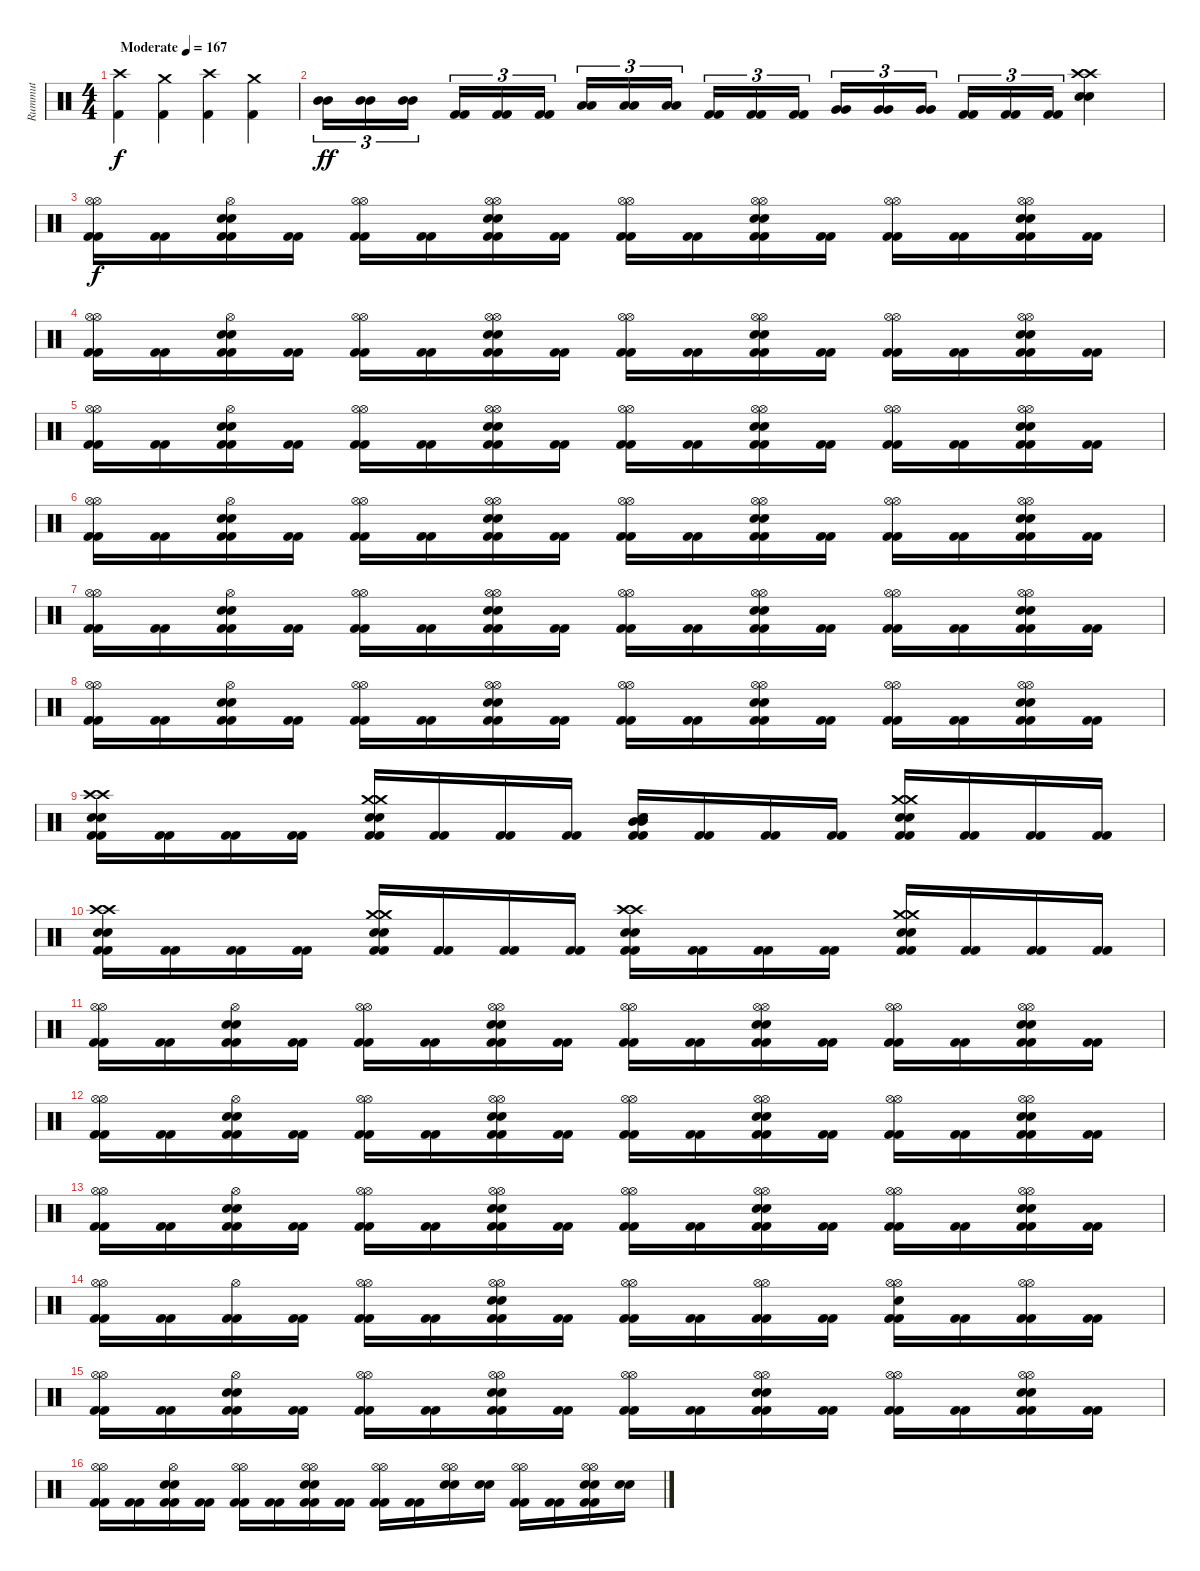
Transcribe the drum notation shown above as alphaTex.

\track ("Rummut" "Rummut") {instrument percussion}
\staff {score}
\articulation defaults
\ts (4 4)
\tempo (167 "Moderate")
\clef neutral
\ks c
("Crash high (hit)" "Kick (hit) 2").4{dy f} ("Crash medium (hit)" "Kick (hit) 2").4 ("Crash high (hit)" "Kick (hit) 2").4 ("Crash medium (hit)" "Kick (hit) 2").4 |
("Mid Tom (hit)" "Mid Tom (hit)").16{tu (3 2) dy ff} ("Mid Tom (hit)" "Mid Tom (hit)").16{tu (3 2)} ("Mid Tom (hit)" "Mid Tom (hit)").16{tu (3 2) beam splitsecondary} ("Kick (hit) 2" "Kick (hit) 2").16{tu (3 2)} ("Kick (hit) 2" "Kick (hit) 2").16{tu (3 2)} ("Kick (hit) 2" "Kick (hit) 2").16{tu (3 2)} ("Low Tom (hit)" "Low Tom (hit)").16{tu (3 2)} ("Low Tom (hit)" "Low Tom (hit)").16{tu (3 2)} ("Low Tom (hit)" "Low Tom (hit)").16{tu (3 2) beam splitsecondary} ("Kick (hit) 2" "Kick (hit) 2").16{tu (3 2)} ("Kick (hit) 2" "Kick (hit) 2").16{tu (3 2)} ("Kick (hit) 2" "Kick (hit) 2").16{tu (3 2)} ("Very Low Tom (hit)" "Very Low Tom (hit)").16{tu (3 2)} ("Very Low Tom (hit)" "Very Low Tom (hit)").16{tu (3 2)} ("Very Low Tom (hit)" "Very Low Tom (hit)").16{tu (3 2) beam splitsecondary} ("Kick (hit) 2" "Kick (hit) 2").16{tu (3 2)} ("Kick (hit) 2" "Kick (hit) 2").16{tu (3 2)} ("Kick (hit) 2" "Kick (hit) 2").16{tu (3 2)} ("Crash high (hit)" "Crash high (hit)" "Snare (hit) 2" "Snare (hit) 2").4 |
("Kick (hit) 2" "Kick (hit) 2" "Hi-Hat (open)" "Hi-Hat (open)").16{dy f} ("Kick (hit) 2" "Kick (hit) 2").16 ("Kick (hit) 2" "Kick (hit) 2" "Snare (hit) 2" "Snare (hit) 2" "Hi-Hat (open)").16 ("Kick (hit) 2" "Kick (hit) 2").16 ("Kick (hit) 2" "Kick (hit) 2" "Hi-Hat (open)" "Hi-Hat (open)").16 ("Kick (hit) 2" "Kick (hit) 2").16 ("Kick (hit) 2" "Kick (hit) 2" "Snare (hit) 2" "Snare (hit) 2" "Hi-Hat (open)" "Hi-Hat (open)").16 ("Kick (hit) 2" "Kick (hit) 2").16 ("Kick (hit) 2" "Kick (hit) 2" "Hi-Hat (open)" "Hi-Hat (open)").16 ("Kick (hit) 2" "Kick (hit) 2").16 ("Kick (hit) 2" "Kick (hit) 2" "Snare (hit) 2" "Snare (hit) 2" "Hi-Hat (open)" "Hi-Hat (open)").16 ("Kick (hit) 2" "Kick (hit) 2").16 ("Kick (hit) 2" "Kick (hit) 2" "Hi-Hat (open)" "Hi-Hat (open)").16 ("Kick (hit) 2" "Kick (hit) 2").16 ("Kick (hit) 2" "Kick (hit) 2" "Snare (hit) 2" "Snare (hit) 2" "Hi-Hat (open)" "Hi-Hat (open)").16 ("Kick (hit) 2" "Kick (hit) 2").16 |
("Kick (hit) 2" "Kick (hit) 2" "Hi-Hat (open)" "Hi-Hat (open)").16 ("Kick (hit) 2" "Kick (hit) 2").16 ("Kick (hit) 2" "Kick (hit) 2" "Snare (hit) 2" "Snare (hit) 2" "Hi-Hat (open)").16 ("Kick (hit) 2" "Kick (hit) 2").16 ("Kick (hit) 2" "Kick (hit) 2" "Hi-Hat (open)" "Hi-Hat (open)").16 ("Kick (hit) 2" "Kick (hit) 2").16 ("Kick (hit) 2" "Kick (hit) 2" "Snare (hit) 2" "Snare (hit) 2" "Hi-Hat (open)" "Hi-Hat (open)").16 ("Kick (hit) 2" "Kick (hit) 2").16 ("Kick (hit) 2" "Kick (hit) 2" "Hi-Hat (open)" "Hi-Hat (open)").16 ("Kick (hit) 2" "Kick (hit) 2").16 ("Kick (hit) 2" "Kick (hit) 2" "Snare (hit) 2" "Snare (hit) 2" "Hi-Hat (open)" "Hi-Hat (open)").16 ("Kick (hit) 2" "Kick (hit) 2").16 ("Kick (hit) 2" "Kick (hit) 2" "Hi-Hat (open)" "Hi-Hat (open)").16 ("Kick (hit) 2" "Kick (hit) 2").16 ("Kick (hit) 2" "Kick (hit) 2" "Snare (hit) 2" "Snare (hit) 2" "Hi-Hat (open)" "Hi-Hat (open)").16 ("Kick (hit) 2" "Kick (hit) 2").16 |
("Kick (hit) 2" "Kick (hit) 2" "Hi-Hat (open)" "Hi-Hat (open)").16 ("Kick (hit) 2" "Kick (hit) 2").16 ("Kick (hit) 2" "Kick (hit) 2" "Snare (hit) 2" "Snare (hit) 2" "Hi-Hat (open)").16 ("Kick (hit) 2" "Kick (hit) 2").16 ("Kick (hit) 2" "Kick (hit) 2" "Hi-Hat (open)" "Hi-Hat (open)").16 ("Kick (hit) 2" "Kick (hit) 2").16 ("Kick (hit) 2" "Kick (hit) 2" "Snare (hit) 2" "Snare (hit) 2" "Hi-Hat (open)" "Hi-Hat (open)").16 ("Kick (hit) 2" "Kick (hit) 2").16 ("Kick (hit) 2" "Kick (hit) 2" "Hi-Hat (open)" "Hi-Hat (open)").16 ("Kick (hit) 2" "Kick (hit) 2").16 ("Kick (hit) 2" "Kick (hit) 2" "Snare (hit) 2" "Snare (hit) 2" "Hi-Hat (open)" "Hi-Hat (open)").16 ("Kick (hit) 2" "Kick (hit) 2").16 ("Kick (hit) 2" "Kick (hit) 2" "Hi-Hat (open)" "Hi-Hat (open)").16 ("Kick (hit) 2" "Kick (hit) 2").16 ("Kick (hit) 2" "Kick (hit) 2" "Snare (hit) 2" "Snare (hit) 2" "Hi-Hat (open)" "Hi-Hat (open)").16 ("Kick (hit) 2" "Kick (hit) 2").16 |
("Kick (hit) 2" "Kick (hit) 2" "Hi-Hat (open)" "Hi-Hat (open)").16 ("Kick (hit) 2" "Kick (hit) 2").16 ("Kick (hit) 2" "Kick (hit) 2" "Snare (hit) 2" "Snare (hit) 2" "Hi-Hat (open)").16 ("Kick (hit) 2" "Kick (hit) 2").16 ("Kick (hit) 2" "Kick (hit) 2" "Hi-Hat (open)" "Hi-Hat (open)").16 ("Kick (hit) 2" "Kick (hit) 2").16 ("Kick (hit) 2" "Kick (hit) 2" "Snare (hit) 2" "Snare (hit) 2" "Hi-Hat (open)" "Hi-Hat (open)").16 ("Kick (hit) 2" "Kick (hit) 2").16 ("Kick (hit) 2" "Kick (hit) 2" "Hi-Hat (open)" "Hi-Hat (open)").16 ("Kick (hit) 2" "Kick (hit) 2").16 ("Kick (hit) 2" "Kick (hit) 2" "Snare (hit) 2" "Snare (hit) 2" "Hi-Hat (open)" "Hi-Hat (open)").16 ("Kick (hit) 2" "Kick (hit) 2").16 ("Kick (hit) 2" "Kick (hit) 2" "Hi-Hat (open)" "Hi-Hat (open)").16 ("Kick (hit) 2" "Kick (hit) 2").16 ("Kick (hit) 2" "Kick (hit) 2" "Snare (hit) 2" "Snare (hit) 2" "Hi-Hat (open)" "Hi-Hat (open)").16 ("Kick (hit) 2" "Kick (hit) 2").16 |
("Kick (hit) 2" "Kick (hit) 2" "Hi-Hat (open)" "Hi-Hat (open)").16 ("Kick (hit) 2" "Kick (hit) 2").16 ("Kick (hit) 2" "Kick (hit) 2" "Snare (hit) 2" "Snare (hit) 2" "Hi-Hat (open)").16 ("Kick (hit) 2" "Kick (hit) 2").16 ("Kick (hit) 2" "Kick (hit) 2" "Hi-Hat (open)" "Hi-Hat (open)").16 ("Kick (hit) 2" "Kick (hit) 2").16 ("Kick (hit) 2" "Kick (hit) 2" "Snare (hit) 2" "Snare (hit) 2" "Hi-Hat (open)" "Hi-Hat (open)").16 ("Kick (hit) 2" "Kick (hit) 2").16 ("Kick (hit) 2" "Kick (hit) 2" "Hi-Hat (open)" "Hi-Hat (open)").16 ("Kick (hit) 2" "Kick (hit) 2").16 ("Kick (hit) 2" "Kick (hit) 2" "Snare (hit) 2" "Snare (hit) 2" "Hi-Hat (open)" "Hi-Hat (open)").16 ("Kick (hit) 2" "Kick (hit) 2").16 ("Kick (hit) 2" "Kick (hit) 2" "Hi-Hat (open)" "Hi-Hat (open)").16 ("Kick (hit) 2" "Kick (hit) 2").16 ("Kick (hit) 2" "Kick (hit) 2" "Snare (hit) 2" "Snare (hit) 2" "Hi-Hat (open)" "Hi-Hat (open)").16 ("Kick (hit) 2" "Kick (hit) 2").16 |
("Kick (hit) 2" "Kick (hit) 2" "Hi-Hat (open)" "Hi-Hat (open)").16 ("Kick (hit) 2" "Kick (hit) 2").16 ("Kick (hit) 2" "Kick (hit) 2" "Snare (hit) 2" "Snare (hit) 2" "Hi-Hat (open)").16 ("Kick (hit) 2" "Kick (hit) 2").16 ("Kick (hit) 2" "Kick (hit) 2" "Hi-Hat (open)" "Hi-Hat (open)").16 ("Kick (hit) 2" "Kick (hit) 2").16 ("Kick (hit) 2" "Kick (hit) 2" "Snare (hit) 2" "Snare (hit) 2" "Hi-Hat (open)" "Hi-Hat (open)").16 ("Kick (hit) 2" "Kick (hit) 2").16 ("Kick (hit) 2" "Kick (hit) 2" "Hi-Hat (open)" "Hi-Hat (open)").16 ("Kick (hit) 2" "Kick (hit) 2").16 ("Kick (hit) 2" "Kick (hit) 2" "Snare (hit) 2" "Snare (hit) 2" "Hi-Hat (open)" "Hi-Hat (open)").16 ("Kick (hit) 2" "Kick (hit) 2").16 ("Kick (hit) 2" "Kick (hit) 2" "Hi-Hat (open)" "Hi-Hat (open)").16 ("Kick (hit) 2" "Kick (hit) 2").16 ("Kick (hit) 2" "Kick (hit) 2" "Snare (hit) 2" "Snare (hit) 2" "Hi-Hat (open)" "Hi-Hat (open)").16 ("Kick (hit) 2" "Kick (hit) 2").16 |
("Snare (hit) 2" "Snare (hit) 2" "Kick (hit) 2" "Kick (hit) 2" "Crash high (hit)" "Crash high (hit)").16 ("Kick (hit) 2" "Kick (hit) 2").16 ("Kick (hit) 2" "Kick (hit) 2").16 ("Kick (hit) 2" "Kick (hit) 2").16 ("Snare (hit) 2" "Snare (hit) 2" "Kick (hit) 2" "Kick (hit) 2" "Crash medium (hit)" "Crash medium (hit)").16 ("Kick (hit) 2" "Kick (hit) 2").16 ("Kick (hit) 2" "Kick (hit) 2").16 ("Kick (hit) 2" "Kick (hit) 2").16 ("Snare (hit) 2" "Snare (hit) 2" "Kick (hit) 2" "Kick (hit) 2" "Mid Tom (hit)" "Mid Tom (hit)").16 ("Kick (hit) 2" "Kick (hit) 2").16 ("Kick (hit) 2" "Kick (hit) 2").16 ("Kick (hit) 2" "Kick (hit) 2").16 ("Snare (hit) 2" "Snare (hit) 2" "Kick (hit) 2" "Kick (hit) 2" "Crash medium (hit)" "Crash medium (hit)").16 ("Kick (hit) 2" "Kick (hit) 2").16 ("Kick (hit) 2" "Kick (hit) 2").16 ("Kick (hit) 2" "Kick (hit) 2").16 |
("Snare (hit) 2" "Snare (hit) 2" "Kick (hit) 2" "Kick (hit) 2" "Crash high (hit)" "Crash high (hit)").16 ("Kick (hit) 2" "Kick (hit) 2").16 ("Kick (hit) 2" "Kick (hit) 2").16 ("Kick (hit) 2" "Kick (hit) 2").16 ("Snare (hit) 2" "Snare (hit) 2" "Kick (hit) 2" "Kick (hit) 2" "Crash medium (hit)" "Crash medium (hit)").16 ("Kick (hit) 2" "Kick (hit) 2").16 ("Kick (hit) 2" "Kick (hit) 2").16 ("Kick (hit) 2" "Kick (hit) 2").16 ("Snare (hit) 2" "Snare (hit) 2" "Kick (hit) 2" "Kick (hit) 2" "Crash high (hit)" "Crash high (hit)").16 ("Kick (hit) 2" "Kick (hit) 2").16 ("Kick (hit) 2" "Kick (hit) 2").16 ("Kick (hit) 2" "Kick (hit) 2").16 ("Snare (hit) 2" "Snare (hit) 2" "Kick (hit) 2" "Kick (hit) 2" "Crash medium (hit)" "Crash medium (hit)").16 ("Kick (hit) 2" "Kick (hit) 2").16 ("Kick (hit) 2" "Kick (hit) 2").16 ("Kick (hit) 2" "Kick (hit) 2").16 |
("Kick (hit) 2" "Kick (hit) 2" "Hi-Hat (open)" "Hi-Hat (open)").16 ("Kick (hit) 2" "Kick (hit) 2").16 ("Kick (hit) 2" "Kick (hit) 2" "Snare (hit) 2" "Snare (hit) 2" "Hi-Hat (open)").16 ("Kick (hit) 2" "Kick (hit) 2").16 ("Kick (hit) 2" "Kick (hit) 2" "Hi-Hat (open)" "Hi-Hat (open)").16 ("Kick (hit) 2" "Kick (hit) 2").16 ("Kick (hit) 2" "Kick (hit) 2" "Snare (hit) 2" "Snare (hit) 2" "Hi-Hat (open)" "Hi-Hat (open)").16 ("Kick (hit) 2" "Kick (hit) 2").16 ("Kick (hit) 2" "Kick (hit) 2" "Hi-Hat (open)" "Hi-Hat (open)").16 ("Kick (hit) 2" "Kick (hit) 2").16 ("Kick (hit) 2" "Kick (hit) 2" "Snare (hit) 2" "Snare (hit) 2" "Hi-Hat (open)" "Hi-Hat (open)").16 ("Kick (hit) 2" "Kick (hit) 2").16 ("Kick (hit) 2" "Kick (hit) 2" "Hi-Hat (open)" "Hi-Hat (open)").16 ("Kick (hit) 2" "Kick (hit) 2").16 ("Kick (hit) 2" "Kick (hit) 2" "Snare (hit) 2" "Snare (hit) 2" "Hi-Hat (open)" "Hi-Hat (open)").16 ("Kick (hit) 2" "Kick (hit) 2").16 |
("Kick (hit) 2" "Kick (hit) 2" "Hi-Hat (open)" "Hi-Hat (open)").16 ("Kick (hit) 2" "Kick (hit) 2").16 ("Kick (hit) 2" "Kick (hit) 2" "Snare (hit) 2" "Snare (hit) 2" "Hi-Hat (open)").16 ("Kick (hit) 2" "Kick (hit) 2").16 ("Kick (hit) 2" "Kick (hit) 2" "Hi-Hat (open)" "Hi-Hat (open)").16 ("Kick (hit) 2" "Kick (hit) 2").16 ("Kick (hit) 2" "Kick (hit) 2" "Snare (hit) 2" "Snare (hit) 2" "Hi-Hat (open)" "Hi-Hat (open)").16 ("Kick (hit) 2" "Kick (hit) 2").16 ("Kick (hit) 2" "Kick (hit) 2" "Hi-Hat (open)" "Hi-Hat (open)").16 ("Kick (hit) 2" "Kick (hit) 2").16 ("Kick (hit) 2" "Kick (hit) 2" "Snare (hit) 2" "Snare (hit) 2" "Hi-Hat (open)" "Hi-Hat (open)").16 ("Kick (hit) 2" "Kick (hit) 2").16 ("Kick (hit) 2" "Kick (hit) 2" "Hi-Hat (open)" "Hi-Hat (open)").16 ("Kick (hit) 2" "Kick (hit) 2").16 ("Kick (hit) 2" "Kick (hit) 2" "Snare (hit) 2" "Snare (hit) 2" "Hi-Hat (open)" "Hi-Hat (open)").16 ("Kick (hit) 2" "Kick (hit) 2").16 |
("Kick (hit) 2" "Kick (hit) 2" "Hi-Hat (open)" "Hi-Hat (open)").16 ("Kick (hit) 2" "Kick (hit) 2").16 ("Kick (hit) 2" "Kick (hit) 2" "Snare (hit) 2" "Snare (hit) 2" "Hi-Hat (open)").16 ("Kick (hit) 2" "Kick (hit) 2").16 ("Kick (hit) 2" "Kick (hit) 2" "Hi-Hat (open)" "Hi-Hat (open)").16 ("Kick (hit) 2" "Kick (hit) 2").16 ("Kick (hit) 2" "Kick (hit) 2" "Snare (hit) 2" "Snare (hit) 2" "Hi-Hat (open)" "Hi-Hat (open)").16 ("Kick (hit) 2" "Kick (hit) 2").16 ("Kick (hit) 2" "Kick (hit) 2" "Hi-Hat (open)" "Hi-Hat (open)").16 ("Kick (hit) 2" "Kick (hit) 2").16 ("Kick (hit) 2" "Kick (hit) 2" "Snare (hit) 2" "Snare (hit) 2" "Hi-Hat (open)" "Hi-Hat (open)").16 ("Kick (hit) 2" "Kick (hit) 2").16 ("Kick (hit) 2" "Kick (hit) 2" "Hi-Hat (open)" "Hi-Hat (open)").16 ("Kick (hit) 2" "Kick (hit) 2").16 ("Kick (hit) 2" "Kick (hit) 2" "Snare (hit) 2" "Snare (hit) 2" "Hi-Hat (open)" "Hi-Hat (open)").16 ("Kick (hit) 2" "Kick (hit) 2").16 |
("Kick (hit) 2" "Kick (hit) 2" "Hi-Hat (open)" "Hi-Hat (open)").16 ("Kick (hit) 2" "Kick (hit) 2").16 ("Kick (hit) 2" "Kick (hit) 2" "Hi-Hat (open)").16 ("Kick (hit) 2" "Kick (hit) 2").16 ("Kick (hit) 2" "Kick (hit) 2" "Hi-Hat (open)" "Hi-Hat (open)").16 ("Kick (hit) 2" "Kick (hit) 2").16 ("Kick (hit) 2" "Kick (hit) 2" "Snare (hit) 2" "Snare (hit) 2" "Hi-Hat (open)" "Hi-Hat (open)").16 ("Kick (hit) 2" "Kick (hit) 2").16 ("Kick (hit) 2" "Kick (hit) 2" "Hi-Hat (open)" "Hi-Hat (open)").16 ("Kick (hit) 2" "Kick (hit) 2").16 ("Kick (hit) 2" "Kick (hit) 2" "Hi-Hat (open)" "Hi-Hat (open)").16 ("Kick (hit) 2" "Kick (hit) 2").16 ("Kick (hit) 2" "Kick (hit) 2" "Hi-Hat (open)" "Hi-Hat (open)" "Snare (hit) 2").16 ("Kick (hit) 2" "Kick (hit) 2").16 ("Kick (hit) 2" "Kick (hit) 2" "Hi-Hat (open)" "Hi-Hat (open)").16 ("Kick (hit) 2" "Kick (hit) 2").16 |
("Kick (hit) 2" "Kick (hit) 2" "Hi-Hat (open)" "Hi-Hat (open)").16 ("Kick (hit) 2" "Kick (hit) 2").16 ("Kick (hit) 2" "Kick (hit) 2" "Snare (hit) 2" "Snare (hit) 2" "Hi-Hat (open)").16 ("Kick (hit) 2" "Kick (hit) 2").16 ("Kick (hit) 2" "Kick (hit) 2" "Hi-Hat (open)" "Hi-Hat (open)").16 ("Kick (hit) 2" "Kick (hit) 2").16 ("Kick (hit) 2" "Kick (hit) 2" "Snare (hit) 2" "Snare (hit) 2" "Hi-Hat (open)" "Hi-Hat (open)").16 ("Kick (hit) 2" "Kick (hit) 2").16 ("Kick (hit) 2" "Kick (hit) 2" "Hi-Hat (open)" "Hi-Hat (open)").16 ("Kick (hit) 2" "Kick (hit) 2").16 ("Kick (hit) 2" "Kick (hit) 2" "Snare (hit) 2" "Snare (hit) 2" "Hi-Hat (open)" "Hi-Hat (open)").16 ("Kick (hit) 2" "Kick (hit) 2").16 ("Kick (hit) 2" "Kick (hit) 2" "Hi-Hat (open)" "Hi-Hat (open)").16 ("Kick (hit) 2" "Kick (hit) 2").16 ("Kick (hit) 2" "Kick (hit) 2" "Snare (hit) 2" "Snare (hit) 2" "Hi-Hat (open)" "Hi-Hat (open)").16 ("Kick (hit) 2" "Kick (hit) 2").16 |
("Kick (hit) 2" "Kick (hit) 2" "Hi-Hat (open)" "Hi-Hat (open)").16 ("Kick (hit) 2" "Kick (hit) 2").16 ("Kick (hit) 2" "Kick (hit) 2" "Snare (hit) 2" "Snare (hit) 2" "Hi-Hat (open)").16 ("Kick (hit) 2" "Kick (hit) 2").16 ("Kick (hit) 2" "Kick (hit) 2" "Hi-Hat (open)" "Hi-Hat (open)").16 ("Kick (hit) 2" "Kick (hit) 2").16 ("Kick (hit) 2" "Kick (hit) 2" "Snare (hit) 2" "Snare (hit) 2" "Hi-Hat (open)" "Hi-Hat (open)").16 ("Kick (hit) 2" "Kick (hit) 2").16 ("Kick (hit) 2" "Kick (hit) 2" "Hi-Hat (open)" "Hi-Hat (open)").16 ("Kick (hit) 2" "Kick (hit) 2").16 ("Snare (hit) 2" "Snare (hit) 2" "Hi-Hat (open)" "Hi-Hat (open)").16 ("Snare (hit) 2" "Snare (hit) 2").16 ("Kick (hit) 2" "Kick (hit) 2" "Hi-Hat (open)" "Hi-Hat (open)").16 ("Kick (hit) 2" "Kick (hit) 2").16 ("Kick (hit) 2" "Kick (hit) 2" "Snare (hit) 2" "Snare (hit) 2" "Hi-Hat (open)" "Hi-Hat (open)").16 ("Snare (hit) 2" "Snare (hit) 2").16
